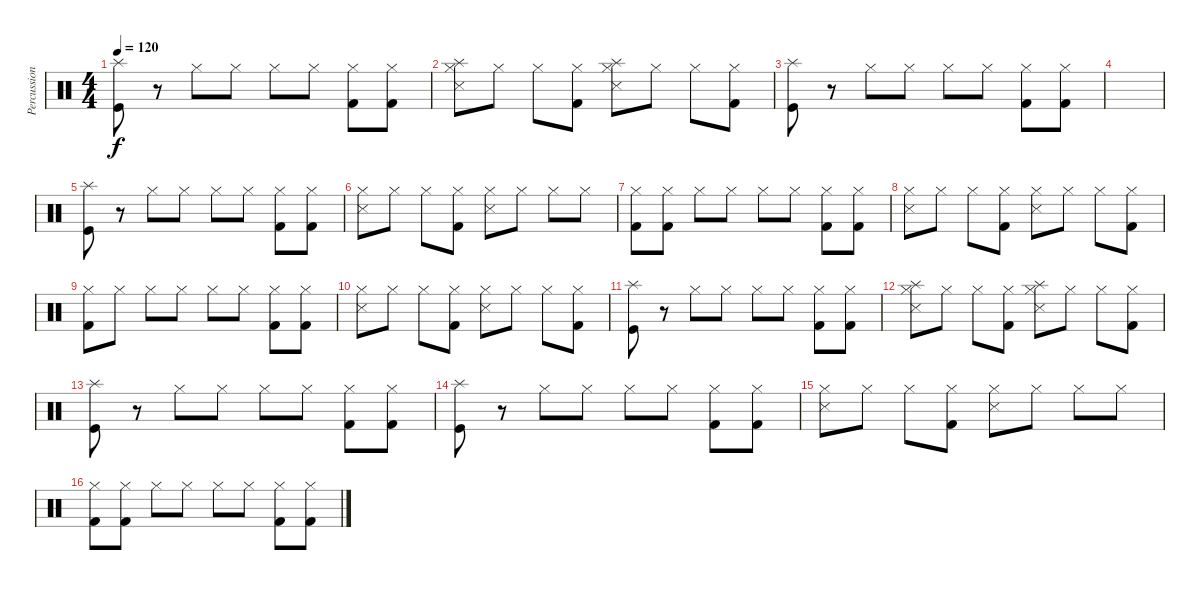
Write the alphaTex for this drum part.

\track ("Percussion" "Percussion") {instrument percussion}
\staff {score}
\articulation defaults
\ts (4 4)
\tempo 120
\clef neutral
\ks c
("Splash (hit)" "Kick (hit)").8{dy f} r.8 "Hi-Hat (closed)".8 "Hi-Hat (closed)".8 "Hi-Hat (closed)".8 "Hi-Hat (closed)".8 ("Kick (hit) 2" "Hi-Hat (closed)").8 ("Kick (hit) 2" "Hi-Hat (closed)").8 |
("Splash (hit)" "Snare (side stick) 3" "Hi-Hat (closed)").8 "Hi-Hat (closed)".8 "Hi-Hat (closed)".8 ("Kick (hit) 2" "Hi-Hat (closed)").8 ("Splash (hit)" "Snare (side stick) 3" "Hi-Hat (closed)").8 "Hi-Hat (closed)".8 "Hi-Hat (closed)".8 ("Kick (hit) 2" "Hi-Hat (closed)").8 |
("Splash (hit)" "Kick (hit)").8 r.8 "Hi-Hat (closed)".8 "Hi-Hat (closed)".8 "Hi-Hat (closed)".8 "Hi-Hat (closed)".8 ("Kick (hit) 2" "Hi-Hat (closed)").8 ("Kick (hit) 2" "Hi-Hat (closed)").8 |
|
("Splash (hit)" "Kick (hit)").8 r.8 "Hi-Hat (closed)".8 "Hi-Hat (closed)".8 "Hi-Hat (closed)".8 "Hi-Hat (closed)".8 ("Kick (hit) 2" "Hi-Hat (closed)").8 ("Kick (hit) 2" "Hi-Hat (closed)").8 |
("Snare (side stick) 3" "Hi-Hat (closed)").8 "Hi-Hat (closed)".8 "Hi-Hat (closed)".8 ("Kick (hit) 2" "Hi-Hat (closed)").8 ("Snare (side stick) 3" "Hi-Hat (closed)").8 "Hi-Hat (closed)".8 "Hi-Hat (closed)".8 "Hi-Hat (closed)".8 |
("Kick (hit) 2" "Hi-Hat (closed)").8 ("Kick (hit) 2" "Hi-Hat (closed)").8 "Hi-Hat (closed)".8 "Hi-Hat (closed)".8 "Hi-Hat (closed)".8 "Hi-Hat (closed)".8 ("Kick (hit) 2" "Hi-Hat (closed)").8 ("Kick (hit) 2" "Hi-Hat (closed)").8 |
("Snare (side stick) 3" "Hi-Hat (closed)").8 "Hi-Hat (closed)".8 "Hi-Hat (closed)".8 ("Kick (hit) 2" "Hi-Hat (closed)").8 ("Snare (side stick) 3" "Hi-Hat (closed)").8 "Hi-Hat (closed)".8 "Hi-Hat (closed)".8 ("Kick (hit) 2" "Hi-Hat (closed)").8 |
("Kick (hit) 2" "Hi-Hat (closed)").8 "Hi-Hat (closed)".8 "Hi-Hat (closed)".8 "Hi-Hat (closed)".8 "Hi-Hat (closed)".8 "Hi-Hat (closed)".8 ("Kick (hit) 2" "Hi-Hat (closed)").8 ("Kick (hit) 2" "Hi-Hat (closed)").8 |
("Snare (side stick) 3" "Hi-Hat (closed)").8 "Hi-Hat (closed)".8 "Hi-Hat (closed)".8 ("Kick (hit) 2" "Hi-Hat (closed)").8 ("Snare (side stick) 3" "Hi-Hat (closed)").8 "Hi-Hat (closed)".8 "Hi-Hat (closed)".8 ("Kick (hit) 2" "Hi-Hat (closed)").8 |
("Splash (hit)" "Kick (hit)").8 r.8 "Hi-Hat (closed)".8 "Hi-Hat (closed)".8 "Hi-Hat (closed)".8 "Hi-Hat (closed)".8 ("Kick (hit) 2" "Hi-Hat (closed)").8 ("Kick (hit) 2" "Hi-Hat (closed)").8 |
("Splash (hit)" "Snare (side stick) 3" "Hi-Hat (closed)").8 "Hi-Hat (closed)".8 "Hi-Hat (closed)".8 ("Kick (hit) 2" "Hi-Hat (closed)").8 ("Splash (hit)" "Snare (side stick) 3" "Hi-Hat (closed)").8 "Hi-Hat (closed)".8 "Hi-Hat (closed)".8 ("Kick (hit) 2" "Hi-Hat (closed)").8 |
("Splash (hit)" "Kick (hit)").8 r.8 "Hi-Hat (closed)".8 "Hi-Hat (closed)".8 "Hi-Hat (closed)".8 "Hi-Hat (closed)".8 ("Kick (hit) 2" "Hi-Hat (closed)").8 ("Kick (hit) 2" "Hi-Hat (closed)").8 |
("Splash (hit)" "Kick (hit)").8 r.8 "Hi-Hat (closed)".8 "Hi-Hat (closed)".8 "Hi-Hat (closed)".8 "Hi-Hat (closed)".8 ("Kick (hit) 2" "Hi-Hat (closed)").8 ("Kick (hit) 2" "Hi-Hat (closed)").8 |
("Snare (side stick) 3" "Hi-Hat (closed)").8 "Hi-Hat (closed)".8 "Hi-Hat (closed)".8 ("Kick (hit) 2" "Hi-Hat (closed)").8 ("Snare (side stick) 3" "Hi-Hat (closed)").8 "Hi-Hat (closed)".8 "Hi-Hat (closed)".8 "Hi-Hat (closed)".8 |
("Kick (hit) 2" "Hi-Hat (closed)").8 ("Kick (hit) 2" "Hi-Hat (closed)").8 "Hi-Hat (closed)".8 "Hi-Hat (closed)".8 "Hi-Hat (closed)".8 "Hi-Hat (closed)".8 ("Kick (hit) 2" "Hi-Hat (closed)").8 ("Kick (hit) 2" "Hi-Hat (closed)").8
